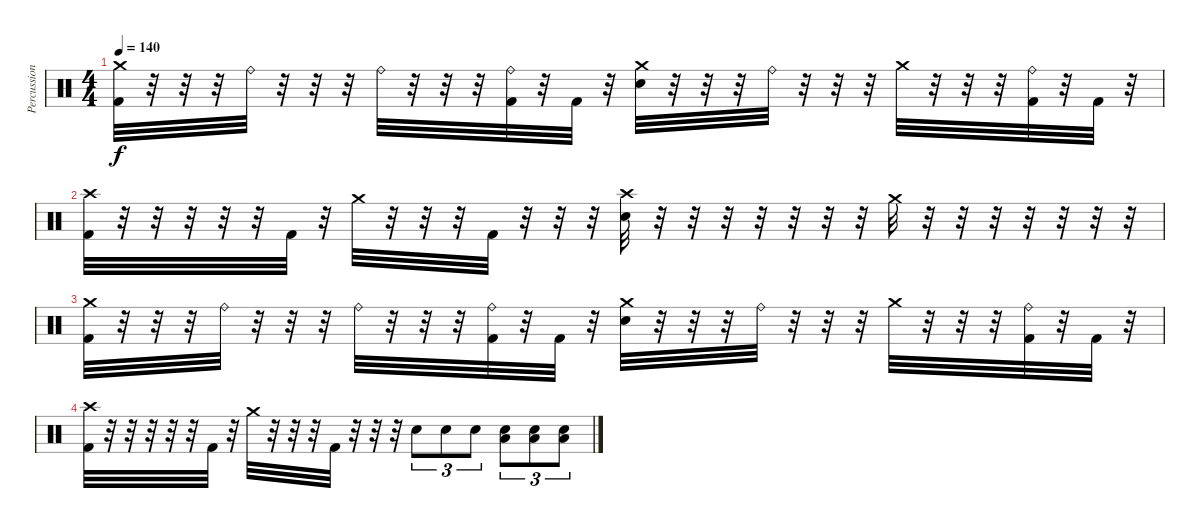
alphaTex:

\track ("Percussion" "Percussion") {instrument percussion}
\staff {score}
\articulation defaults
\ts (4 4)
\tempo 140
\clef neutral
\ks c
("Crash medium (hit)" "Kick (hit) 2").32{dy f} r.32 r.32 r.32 "Ride (bell)".32 r.32 r.32 r.32 "Ride (bell)".32 r.32 r.32 r.32 ("Ride (bell)" "Kick (hit) 2").32 r.32 "Kick (hit) 2".32 r.32 ("Crash medium (hit)" "Electric Snare (hit)").32 r.32 r.32 r.32 "Ride (bell)".32 r.32 r.32 r.32 "Crash medium (hit)".32 r.32 r.32 r.32 ("Ride (bell)" "Kick (hit) 2").32 r.32 "Kick (hit) 2".32 r.32 |
("Crash high (hit)" "Kick (hit) 2").32 r.32 r.32 r.32 r.32 r.32 "Kick (hit) 2".32 r.32 "Crash medium (hit)".32 r.32 r.32 r.32 "Kick (hit) 2".32 r.32 r.32 r.32 ("Crash high (hit)" "Electric Snare (hit)").32 r.32 r.32 r.32 r.32 r.32 r.32 r.32 "Crash medium (hit)".32 r.32 r.32 r.32 r.32 r.32 r.32 r.32 |
("Crash medium (hit)" "Kick (hit) 2").32 r.32 r.32 r.32 "Ride (bell)".32 r.32 r.32 r.32 "Ride (bell)".32 r.32 r.32 r.32 ("Ride (bell)" "Kick (hit) 2").32 r.32 "Kick (hit) 2".32 r.32 ("Crash medium (hit)" "Electric Snare (hit)").32 r.32 r.32 r.32 "Ride (bell)".32 r.32 r.32 r.32 "Crash medium (hit)".32 r.32 r.32 r.32 ("Ride (bell)" "Kick (hit) 2").32 r.32 "Kick (hit) 2".32 r.32 |
("Crash high (hit)" "Kick (hit) 2").32 r.32 r.32 r.32 r.32 r.32 "Kick (hit) 2".32 r.32 "Crash medium (hit)".32 r.32 r.32 r.32 "Kick (hit) 2".32 r.32 r.32 r.32 "Electric Snare (hit)".8{tu (3 2)} "Electric Snare (hit)".8{tu (3 2)} "Electric Snare (hit)".8{tu (3 2)} ("Electric Snare (hit)" "Low Floor Tom (hit)").8{tu (3 2)} ("Electric Snare (hit)" "Low Floor Tom (hit)").8{tu (3 2)} ("Electric Snare (hit)" "Low Floor Tom (hit)").8{tu (3 2)}
